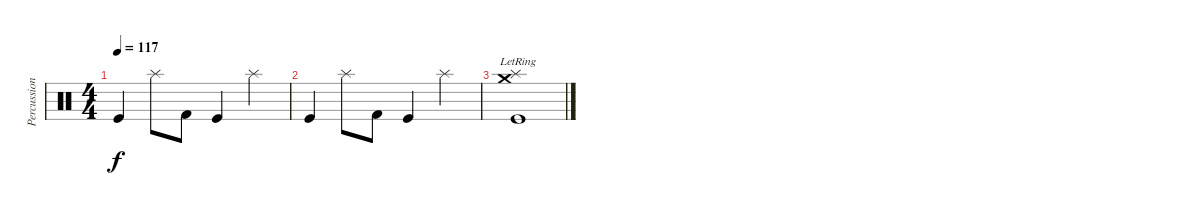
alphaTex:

\track ("Percussions" "Percussion") {instrument percussion}
\staff {score}
\articulation defaults
\ts (4 4)
\tempo 117
\clef neutral
\ks c "Kick (hit)".4{dy f} "Splash (hit)".8 "Kick (hit) 2".8 "Kick (hit)".4 "Splash (hit)".4
|
"Kick (hit)".4 "Splash (hit)".8 "Kick (hit) 2".8 "Kick (hit)".4 "Splash (hit)".4 |
("Crash medium (hit)"{lr} "Splash (hit)"{lr} "Kick (hit)"{lr}).1
